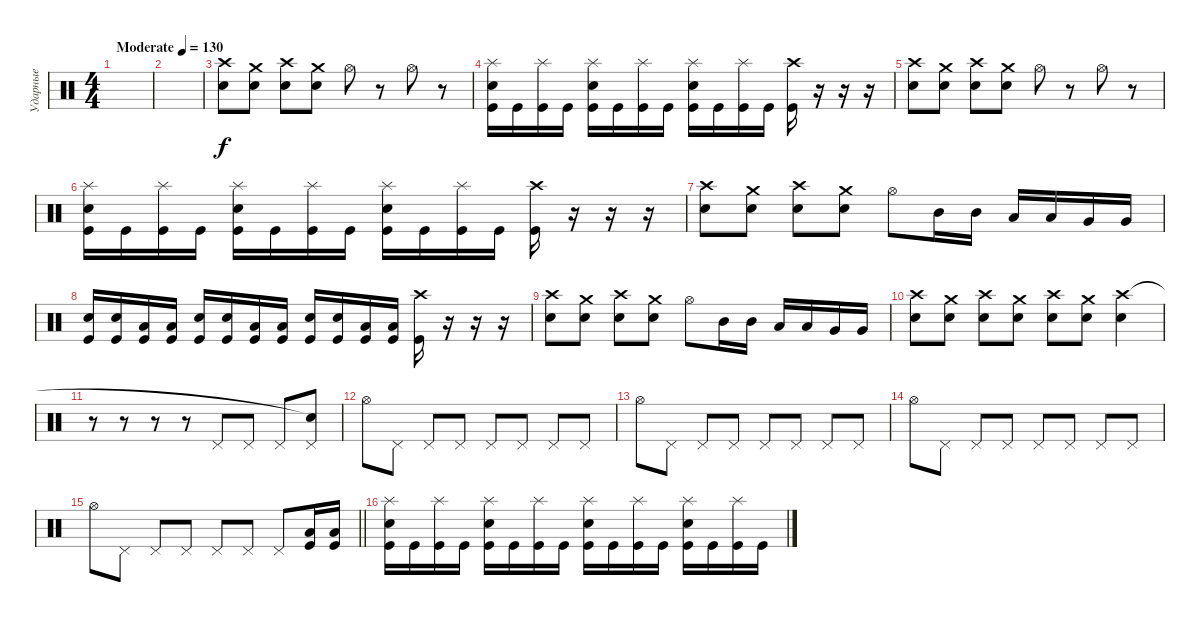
\track ("Ударные" "Ударные") {instrument percussion}
\staff {score}
\articulation defaults
\ts (4 4)
\tempo (130 "Moderate")
\clef neutral
\ks c
|
|
("Electric Snare (hit)" "Crash high (hit)").8 ("Electric Snare (hit)" "Crash medium (hit)").8 ("Electric Snare (hit)" "Crash high (hit)").8 ("Electric Snare (hit)" "Crash medium (hit)").8 "Hi-Hat (open)".8 r.8 "Hi-Hat (open)".8 r.8 |
("Splash (hit)" "Electric Snare (hit)" "Kick (hit)").16 "Kick (hit)".16 ("Splash (hit)" "Kick (hit)").16 "Kick (hit)".16 ("Splash (hit)" "Electric Snare (hit)" "Kick (hit)").16 "Kick (hit)".16 ("Splash (hit)" "Kick (hit)").16 "Kick (hit)".16 ("Splash (hit)" "Electric Snare (hit)" "Kick (hit)").16 "Kick (hit)".16 ("Splash (hit)" "Kick (hit)").16 "Kick (hit)".16 ("Crash high (hit)" "Kick (hit)").16 r.16 r.16 r.16 |
("Electric Snare (hit)" "Crash high (hit)").8 ("Electric Snare (hit)" "Crash medium (hit)").8 ("Electric Snare (hit)" "Crash high (hit)").8 ("Electric Snare (hit)" "Crash medium (hit)").8 "Hi-Hat (open)".8 r.8 "Hi-Hat (open)".8 r.8 |
("Splash (hit)" "Electric Snare (hit)" "Kick (hit)").16 "Kick (hit)".16 ("Splash (hit)" "Kick (hit)").16 "Kick (hit)".16 ("Splash (hit)" "Electric Snare (hit)" "Kick (hit)").16 "Kick (hit)".16 ("Splash (hit)" "Kick (hit)").16 "Kick (hit)".16 ("Splash (hit)" "Electric Snare (hit)" "Kick (hit)").16 "Kick (hit)".16 ("Splash (hit)" "Kick (hit)").16 "Kick (hit)".16 ("Crash high (hit)" "Kick (hit)").16 r.16 r.16 r.16 |
("Electric Snare (hit)" "Crash high (hit)").8 ("Electric Snare (hit)" "Crash medium (hit)").8 ("Electric Snare (hit)" "Crash high (hit)").8 ("Electric Snare (hit)" "Crash medium (hit)").8 "Hi-Hat (open)".8 "Mid Tom (hit)".16 "Mid Tom (hit)".16 "Low Tom (hit)".16 "Low Tom (hit)".16 "Very Low Tom (hit)".16 "Very Low Tom (hit)".16 |
("Electric Snare (hit)" "Kick (hit)").16 ("Electric Snare (hit)" "Kick (hit)").16 ("Low Tom (hit)" "Kick (hit)").16 ("Low Tom (hit)" "Kick (hit)").16 ("Electric Snare (hit)" "Kick (hit)").16 ("Electric Snare (hit)" "Kick (hit)").16 ("Low Tom (hit)" "Kick (hit)").16 ("Low Tom (hit)" "Kick (hit)").16 ("Electric Snare (hit)" "Kick (hit)").16 ("Electric Snare (hit)" "Kick (hit)").16 ("Low Floor Tom (hit)" "Kick (hit)").16 ("Low Floor Tom (hit)" "Kick (hit)").16 ("Crash high (hit)" "Kick (hit)").16 r.16 r.16 r.16 |
("Electric Snare (hit)" "Crash high (hit)").8 ("Electric Snare (hit)" "Crash medium (hit)").8 ("Electric Snare (hit)" "Crash high (hit)").8 ("Electric Snare (hit)" "Crash medium (hit)").8 "Hi-Hat (open)".8 "Mid Tom (hit)".16 "Mid Tom (hit)".16 "Low Tom (hit)".16 "Low Tom (hit)".16 "Very Low Tom (hit)".16 "Very Low Tom (hit)".16 |
("Electric Snare (hit)" "Crash high (hit)").8 ("Electric Snare (hit)" "Crash medium (hit)").8 ("Electric Snare (hit)" "Crash high (hit)").8 ("Electric Snare (hit)" "Crash medium (hit)").8 ("Electric Snare (hit)" "Crash high (hit)").8 ("Electric Snare (hit)" "Crash medium (hit)").8 ("Electric Snare (hit)" "Crash high (hit)").4 |
r.8 r.8 r.8 r.8 "Pedal Hi-Hat (hit)".8 "Pedal Hi-Hat (hit)".8 "Pedal Hi-Hat (hit)".8 ("Pedal Hi-Hat (hit)" "Snare (hit)"{t}).8 |
"Hi-Hat (open)".8 "Pedal Hi-Hat (hit)".8 "Pedal Hi-Hat (hit)".8 "Pedal Hi-Hat (hit)".8 "Pedal Hi-Hat (hit)".8 "Pedal Hi-Hat (hit)".8 "Pedal Hi-Hat (hit)".8 "Pedal Hi-Hat (hit)".8 |
"Hi-Hat (open)".8 "Pedal Hi-Hat (hit)".8 "Pedal Hi-Hat (hit)".8 "Pedal Hi-Hat (hit)".8 "Pedal Hi-Hat (hit)".8 "Pedal Hi-Hat (hit)".8 "Pedal Hi-Hat (hit)".8 "Pedal Hi-Hat (hit)".8 |
"Hi-Hat (open)".8 "Pedal Hi-Hat (hit)".8 "Pedal Hi-Hat (hit)".8 "Pedal Hi-Hat (hit)".8 "Pedal Hi-Hat (hit)".8 "Pedal Hi-Hat (hit)".8 "Pedal Hi-Hat (hit)".8 "Pedal Hi-Hat (hit)".8 |
\barLineRight lightlight "Hi-Hat (open)".8 "Pedal Hi-Hat (hit)".8 "Pedal Hi-Hat (hit)".8 "Pedal Hi-Hat (hit)".8 "Pedal Hi-Hat (hit)".8 "Pedal Hi-Hat (hit)".8 "Pedal Hi-Hat (hit)".8
("Kick (hit)" "Low Floor Tom (hit)").16 ("Kick (hit)" "Low Floor Tom (hit)").16 |
("Splash (hit)" "Electric Snare (hit)" "Kick (hit)").16 "Kick (hit)".16 ("Splash (hit)" "Kick (hit)").16 "Kick (hit)".16 ("Splash (hit)" "Electric Snare (hit)" "Kick (hit)").16 "Kick (hit)".16 ("Splash (hit)" "Kick (hit)").16 "Kick (hit)".16 ("Splash (hit)" "Electric Snare (hit)" "Kick (hit)").16 "Kick (hit)".16 ("Splash (hit)" "Kick (hit)").16 "Kick (hit)".16 ("Splash (hit)" "Electric Snare (hit)" "Kick (hit)").16 "Kick (hit)".16 ("Splash (hit)" "Kick (hit)").16 "Kick (hit)".16
